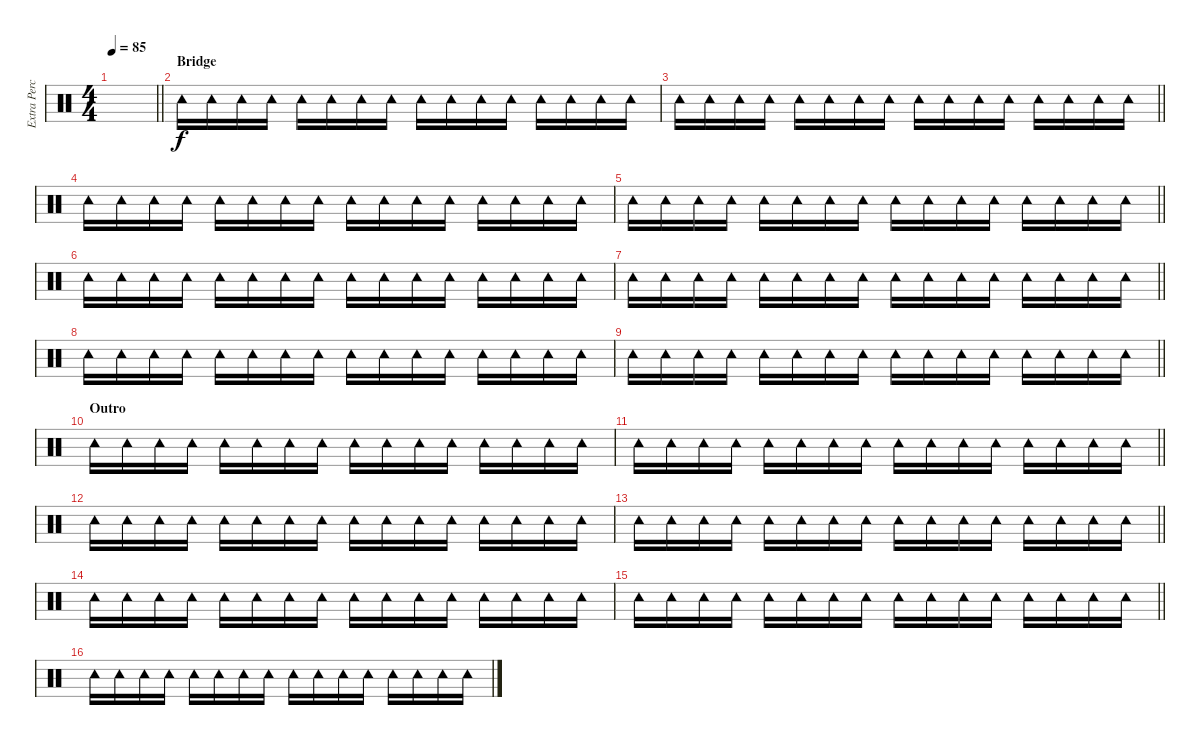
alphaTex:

\track ("Extra Percussion" "Extra Perc") {instrument percussion}
\staff {score}
\articulation defaults
\ts (4 4)
\tempo 85
\clef neutral
\barLineRight lightlight
\ks c
|
\section ("" "Bridge")
"Tambourine (hit)".16 "Tambourine (hit)".16 "Tambourine (hit)".16 "Tambourine (hit)".16 "Tambourine (hit)".16 "Tambourine (hit)".16 "Tambourine (hit)".16 "Tambourine (hit)".16 "Tambourine (hit)".16 "Tambourine (hit)".16 "Tambourine (hit)".16 "Tambourine (hit)".16 "Tambourine (hit)".16 "Tambourine (hit)".16 "Tambourine (hit)".16 "Tambourine (hit)".16 |
\barLineRight lightlight "Tambourine (hit)".16 "Tambourine (hit)".16 "Tambourine (hit)".16 "Tambourine (hit)".16 "Tambourine (hit)".16 "Tambourine (hit)".16 "Tambourine (hit)".16 "Tambourine (hit)".16 "Tambourine (hit)".16 "Tambourine (hit)".16 "Tambourine (hit)".16 "Tambourine (hit)".16 "Tambourine (hit)".16 "Tambourine (hit)".16 "Tambourine (hit)".16 "Tambourine (hit)".16
|
"Tambourine (hit)".16 "Tambourine (hit)".16 "Tambourine (hit)".16 "Tambourine (hit)".16 "Tambourine (hit)".16 "Tambourine (hit)".16 "Tambourine (hit)".16 "Tambourine (hit)".16 "Tambourine (hit)".16 "Tambourine (hit)".16 "Tambourine (hit)".16 "Tambourine (hit)".16 "Tambourine (hit)".16 "Tambourine (hit)".16 "Tambourine (hit)".16 "Tambourine (hit)".16 |
\barLineRight lightlight "Tambourine (hit)".16 "Tambourine (hit)".16 "Tambourine (hit)".16 "Tambourine (hit)".16 "Tambourine (hit)".16 "Tambourine (hit)".16 "Tambourine (hit)".16 "Tambourine (hit)".16 "Tambourine (hit)".16 "Tambourine (hit)".16 "Tambourine (hit)".16 "Tambourine (hit)".16 "Tambourine (hit)".16 "Tambourine (hit)".16 "Tambourine (hit)".16 "Tambourine (hit)".16
|
"Tambourine (hit)".16 "Tambourine (hit)".16 "Tambourine (hit)".16 "Tambourine (hit)".16 "Tambourine (hit)".16 "Tambourine (hit)".16 "Tambourine (hit)".16 "Tambourine (hit)".16 "Tambourine (hit)".16 "Tambourine (hit)".16 "Tambourine (hit)".16 "Tambourine (hit)".16 "Tambourine (hit)".16 "Tambourine (hit)".16 "Tambourine (hit)".16 "Tambourine (hit)".16 |
\barLineRight lightlight "Tambourine (hit)".16 "Tambourine (hit)".16 "Tambourine (hit)".16 "Tambourine (hit)".16 "Tambourine (hit)".16 "Tambourine (hit)".16 "Tambourine (hit)".16 "Tambourine (hit)".16 "Tambourine (hit)".16 "Tambourine (hit)".16 "Tambourine (hit)".16 "Tambourine (hit)".16 "Tambourine (hit)".16 "Tambourine (hit)".16 "Tambourine (hit)".16 "Tambourine (hit)".16
|
"Tambourine (hit)".16 "Tambourine (hit)".16 "Tambourine (hit)".16 "Tambourine (hit)".16 "Tambourine (hit)".16 "Tambourine (hit)".16 "Tambourine (hit)".16 "Tambourine (hit)".16 "Tambourine (hit)".16 "Tambourine (hit)".16 "Tambourine (hit)".16 "Tambourine (hit)".16 "Tambourine (hit)".16 "Tambourine (hit)".16 "Tambourine (hit)".16 "Tambourine (hit)".16 |
\barLineRight lightlight "Tambourine (hit)".16 "Tambourine (hit)".16 "Tambourine (hit)".16 "Tambourine (hit)".16 "Tambourine (hit)".16 "Tambourine (hit)".16 "Tambourine (hit)".16 "Tambourine (hit)".16 "Tambourine (hit)".16 "Tambourine (hit)".16 "Tambourine (hit)".16 "Tambourine (hit)".16 "Tambourine (hit)".16 "Tambourine (hit)".16 "Tambourine (hit)".16 "Tambourine (hit)".16
|
\section ("" "Outro")
"Tambourine (hit)".16 "Tambourine (hit)".16 "Tambourine (hit)".16 "Tambourine (hit)".16 "Tambourine (hit)".16 "Tambourine (hit)".16 "Tambourine (hit)".16 "Tambourine (hit)".16 "Tambourine (hit)".16 "Tambourine (hit)".16 "Tambourine (hit)".16 "Tambourine (hit)".16 "Tambourine (hit)".16 "Tambourine (hit)".16 "Tambourine (hit)".16 "Tambourine (hit)".16 |
\barLineRight lightlight "Tambourine (hit)".16 "Tambourine (hit)".16 "Tambourine (hit)".16 "Tambourine (hit)".16 "Tambourine (hit)".16 "Tambourine (hit)".16 "Tambourine (hit)".16 "Tambourine (hit)".16 "Tambourine (hit)".16 "Tambourine (hit)".16 "Tambourine (hit)".16 "Tambourine (hit)".16 "Tambourine (hit)".16 "Tambourine (hit)".16 "Tambourine (hit)".16 "Tambourine (hit)".16
|
"Tambourine (hit)".16 "Tambourine (hit)".16 "Tambourine (hit)".16 "Tambourine (hit)".16 "Tambourine (hit)".16 "Tambourine (hit)".16 "Tambourine (hit)".16 "Tambourine (hit)".16 "Tambourine (hit)".16 "Tambourine (hit)".16 "Tambourine (hit)".16 "Tambourine (hit)".16 "Tambourine (hit)".16 "Tambourine (hit)".16 "Tambourine (hit)".16 "Tambourine (hit)".16 |
\barLineRight lightlight "Tambourine (hit)".16 "Tambourine (hit)".16 "Tambourine (hit)".16 "Tambourine (hit)".16 "Tambourine (hit)".16 "Tambourine (hit)".16 "Tambourine (hit)".16 "Tambourine (hit)".16 "Tambourine (hit)".16 "Tambourine (hit)".16 "Tambourine (hit)".16 "Tambourine (hit)".16 "Tambourine (hit)".16 "Tambourine (hit)".16 "Tambourine (hit)".16 "Tambourine (hit)".16
|
"Tambourine (hit)".16 "Tambourine (hit)".16 "Tambourine (hit)".16 "Tambourine (hit)".16 "Tambourine (hit)".16 "Tambourine (hit)".16 "Tambourine (hit)".16 "Tambourine (hit)".16 "Tambourine (hit)".16 "Tambourine (hit)".16 "Tambourine (hit)".16 "Tambourine (hit)".16 "Tambourine (hit)".16 "Tambourine (hit)".16 "Tambourine (hit)".16 "Tambourine (hit)".16 |
\barLineRight lightlight "Tambourine (hit)".16 "Tambourine (hit)".16 "Tambourine (hit)".16 "Tambourine (hit)".16 "Tambourine (hit)".16 "Tambourine (hit)".16 "Tambourine (hit)".16 "Tambourine (hit)".16 "Tambourine (hit)".16 "Tambourine (hit)".16 "Tambourine (hit)".16 "Tambourine (hit)".16 "Tambourine (hit)".16 "Tambourine (hit)".16 "Tambourine (hit)".16 "Tambourine (hit)".16
|
"Tambourine (hit)".16 "Tambourine (hit)".16 "Tambourine (hit)".16 "Tambourine (hit)".16 "Tambourine (hit)".16 "Tambourine (hit)".16 "Tambourine (hit)".16 "Tambourine (hit)".16 "Tambourine (hit)".16 "Tambourine (hit)".16 "Tambourine (hit)".16 "Tambourine (hit)".16 "Tambourine (hit)".16 "Tambourine (hit)".16 "Tambourine (hit)".16 "Tambourine (hit)".16
